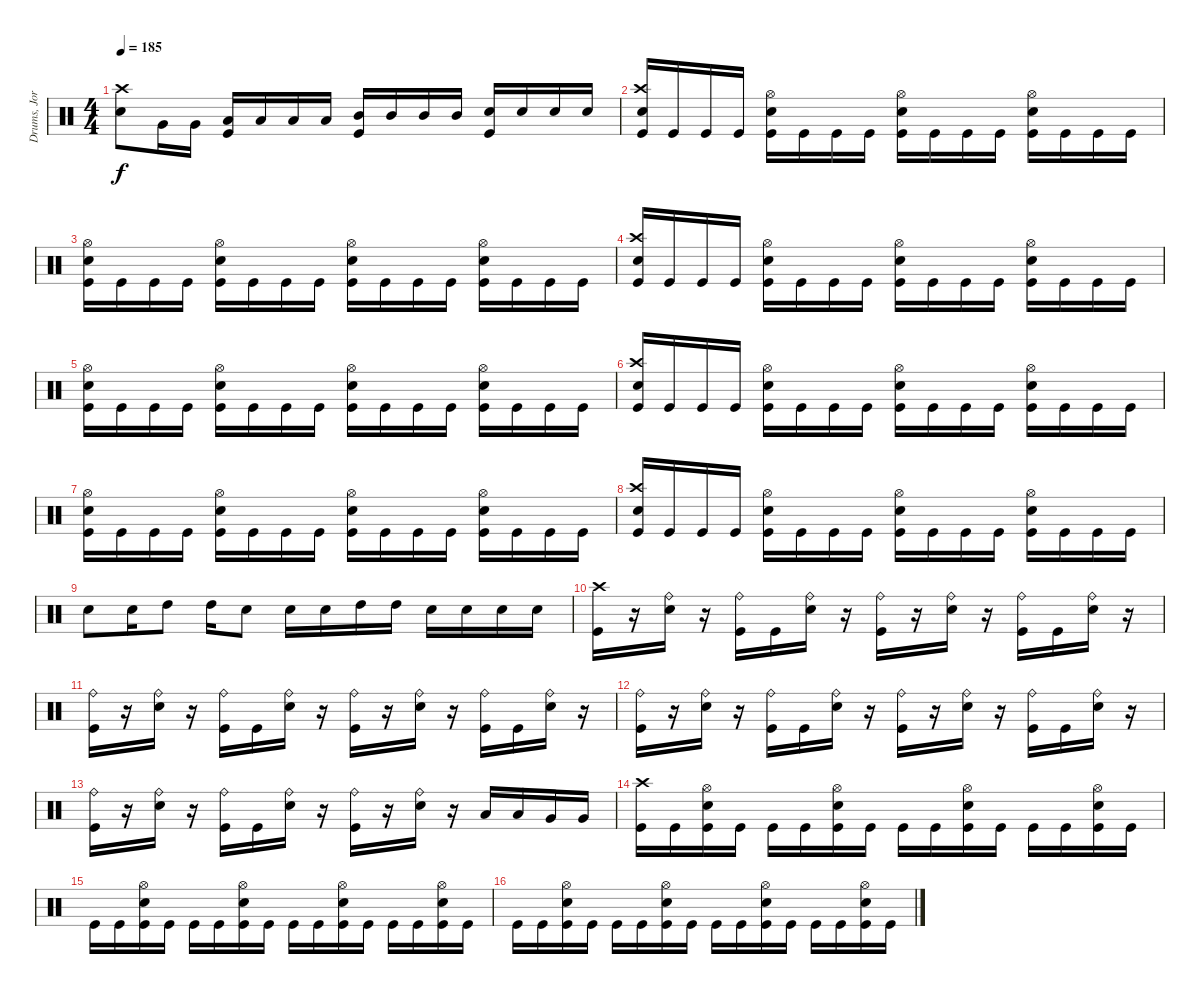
\track ("Drums, Jorye Sáez" "Drums, Jor") {instrument percussion}
\staff {score}
\articulation defaults
\ts (4 4)
\tempo 185
\clef neutral
\ks c
("Electric Snare (hit)" "Crash high (hit)").8{dy f} "Very Low Tom (hit)".16 "Very Low Tom (hit)".16 ("Low Tom (hit)" "Kick (hit)").16 "Low Tom (hit)".16 "Low Tom (hit)".16 "Low Tom (hit)".16 ("Mid Tom (hit)" "Kick (hit)").16 "Mid Tom (hit)".16 "Mid Tom (hit)".16 "Mid Tom (hit)".16 ("Electric Snare (hit)" "Kick (hit)").16 "Electric Snare (hit)".16 "Electric Snare (hit)".16 "Electric Snare (hit)".16 |
("Kick (hit)" "Electric Snare (hit)" "Crash high (hit)").16 "Kick (hit)".16 "Kick (hit)".16 "Kick (hit)".16 ("Kick (hit)" "Electric Snare (hit)" "Hi-Hat (open)").16 "Kick (hit)".16 "Kick (hit)".16 "Kick (hit)".16 ("Kick (hit)" "Electric Snare (hit)" "Hi-Hat (open)").16 "Kick (hit)".16 "Kick (hit)".16 "Kick (hit)".16 ("Kick (hit)" "Electric Snare (hit)" "Hi-Hat (open)").16 "Kick (hit)".16 "Kick (hit)".16 "Kick (hit)".16 |
("Kick (hit)" "Electric Snare (hit)" "Hi-Hat (open)").16 "Kick (hit)".16 "Kick (hit)".16 "Kick (hit)".16 ("Kick (hit)" "Electric Snare (hit)" "Hi-Hat (open)").16 "Kick (hit)".16 "Kick (hit)".16 "Kick (hit)".16 ("Kick (hit)" "Electric Snare (hit)" "Hi-Hat (open)").16 "Kick (hit)".16 "Kick (hit)".16 "Kick (hit)".16 ("Kick (hit)" "Electric Snare (hit)" "Hi-Hat (open)").16 "Kick (hit)".16 "Kick (hit)".16 "Kick (hit)".16 |
("Kick (hit)" "Electric Snare (hit)" "Crash high (hit)").16 "Kick (hit)".16 "Kick (hit)".16 "Kick (hit)".16 ("Kick (hit)" "Electric Snare (hit)" "Hi-Hat (open)").16 "Kick (hit)".16 "Kick (hit)".16 "Kick (hit)".16 ("Kick (hit)" "Electric Snare (hit)" "Hi-Hat (open)").16 "Kick (hit)".16 "Kick (hit)".16 "Kick (hit)".16 ("Kick (hit)" "Electric Snare (hit)" "Hi-Hat (open)").16 "Kick (hit)".16 "Kick (hit)".16 "Kick (hit)".16 |
("Kick (hit)" "Electric Snare (hit)" "Hi-Hat (open)").16 "Kick (hit)".16 "Kick (hit)".16 "Kick (hit)".16 ("Kick (hit)" "Electric Snare (hit)" "Hi-Hat (open)").16 "Kick (hit)".16 "Kick (hit)".16 "Kick (hit)".16 ("Kick (hit)" "Electric Snare (hit)" "Hi-Hat (open)").16 "Kick (hit)".16 "Kick (hit)".16 "Kick (hit)".16 ("Kick (hit)" "Electric Snare (hit)" "Hi-Hat (open)").16 "Kick (hit)".16 "Kick (hit)".16 "Kick (hit)".16 |
("Kick (hit)" "Electric Snare (hit)" "Crash high (hit)").16 "Kick (hit)".16 "Kick (hit)".16 "Kick (hit)".16 ("Kick (hit)" "Electric Snare (hit)" "Hi-Hat (open)").16 "Kick (hit)".16 "Kick (hit)".16 "Kick (hit)".16 ("Kick (hit)" "Electric Snare (hit)" "Hi-Hat (open)").16 "Kick (hit)".16 "Kick (hit)".16 "Kick (hit)".16 ("Kick (hit)" "Electric Snare (hit)" "Hi-Hat (open)").16 "Kick (hit)".16 "Kick (hit)".16 "Kick (hit)".16 |
("Kick (hit)" "Electric Snare (hit)" "Hi-Hat (open)").16 "Kick (hit)".16 "Kick (hit)".16 "Kick (hit)".16 ("Kick (hit)" "Electric Snare (hit)" "Hi-Hat (open)").16 "Kick (hit)".16 "Kick (hit)".16 "Kick (hit)".16 ("Kick (hit)" "Electric Snare (hit)" "Hi-Hat (open)").16 "Kick (hit)".16 "Kick (hit)".16 "Kick (hit)".16 ("Kick (hit)" "Electric Snare (hit)" "Hi-Hat (open)").16 "Kick (hit)".16 "Kick (hit)".16 "Kick (hit)".16 |
("Kick (hit)" "Electric Snare (hit)" "Crash high (hit)").16 "Kick (hit)".16 "Kick (hit)".16 "Kick (hit)".16 ("Kick (hit)" "Electric Snare (hit)" "Hi-Hat (open)").16 "Kick (hit)".16 "Kick (hit)".16 "Kick (hit)".16 ("Kick (hit)" "Electric Snare (hit)" "Hi-Hat (open)").16 "Kick (hit)".16 "Kick (hit)".16 "Kick (hit)".16 ("Kick (hit)" "Electric Snare (hit)" "Hi-Hat (open)").16 "Kick (hit)".16 "Kick (hit)".16 "Kick (hit)".16 |
"Electric Snare (hit)".8 "Electric Snare (hit)".16 "High Tom (hit)".8 "High Tom (hit)".16 "Electric Snare (hit)".8 "Electric Snare (hit)".16 "Electric Snare (hit)".16 "High Tom (hit)".16 "High Tom (hit)".16 "Electric Snare (hit)".16 "Electric Snare (hit)".16 "Electric Snare (hit)".16 "Electric Snare (hit)".16 |
("Kick (hit)" "Crash high (hit)").16 r.16 ("Electric Snare (hit)" "Ride (bell)").16 r.16 ("Kick (hit)" "Ride (bell)").16 "Kick (hit)".16 ("Electric Snare (hit)" "Ride (bell)").16 r.16 ("Kick (hit)" "Ride (bell)").16 r.16 ("Electric Snare (hit)" "Ride (bell)").16 r.16 ("Kick (hit)" "Ride (bell)").16 "Kick (hit)".16 ("Electric Snare (hit)" "Ride (bell)").16 r.16 |
("Kick (hit)" "Ride (bell)").16 r.16 ("Electric Snare (hit)" "Ride (bell)").16 r.16 ("Kick (hit)" "Ride (bell)").16 "Kick (hit)".16 ("Electric Snare (hit)" "Ride (bell)").16 r.16 ("Kick (hit)" "Ride (bell)").16 r.16 ("Electric Snare (hit)" "Ride (bell)").16 r.16 ("Kick (hit)" "Ride (bell)").16 "Kick (hit)".16 ("Electric Snare (hit)" "Ride (bell)").16 r.16 |
("Kick (hit)" "Ride (bell)").16 r.16 ("Electric Snare (hit)" "Ride (bell)").16 r.16 ("Kick (hit)" "Ride (bell)").16 "Kick (hit)".16 ("Electric Snare (hit)" "Ride (bell)").16 r.16 ("Kick (hit)" "Ride (bell)").16 r.16 ("Electric Snare (hit)" "Ride (bell)").16 r.16 ("Kick (hit)" "Ride (bell)").16 "Kick (hit)".16 ("Electric Snare (hit)" "Ride (bell)").16 r.16 |
("Kick (hit)" "Ride (bell)").16 r.16 ("Electric Snare (hit)" "Ride (bell)").16 r.16 ("Kick (hit)" "Ride (bell)").16 "Kick (hit)".16 ("Electric Snare (hit)" "Ride (bell)").16 r.16 ("Kick (hit)" "Ride (bell)").16 r.16 ("Electric Snare (hit)" "Ride (bell)").16 r.16 "Low Tom (hit)".16 "Low Tom (hit)".16 "Very Low Tom (hit)".16 "Very Low Tom (hit)".16 |
("Kick (hit)" "Crash high (hit)").16 "Kick (hit)".16 ("Kick (hit)" "Electric Snare (hit)" "Hi-Hat (open)").16 "Kick (hit)".16 "Kick (hit)".16 "Kick (hit)".16 ("Kick (hit)" "Electric Snare (hit)" "Hi-Hat (open)").16 "Kick (hit)".16 "Kick (hit)".16 "Kick (hit)".16 ("Kick (hit)" "Electric Snare (hit)" "Hi-Hat (open)").16 "Kick (hit)".16 "Kick (hit)".16 "Kick (hit)".16 ("Kick (hit)" "Electric Snare (hit)" "Hi-Hat (open)").16 "Kick (hit)".16 |
"Kick (hit)".16 "Kick (hit)".16 ("Kick (hit)" "Electric Snare (hit)" "Hi-Hat (open)").16 "Kick (hit)".16 "Kick (hit)".16 "Kick (hit)".16 ("Kick (hit)" "Electric Snare (hit)" "Hi-Hat (open)").16 "Kick (hit)".16 "Kick (hit)".16 "Kick (hit)".16 ("Kick (hit)" "Electric Snare (hit)" "Hi-Hat (open)").16 "Kick (hit)".16 "Kick (hit)".16 "Kick (hit)".16 ("Kick (hit)" "Electric Snare (hit)" "Hi-Hat (open)").16 "Kick (hit)".16 |
"Kick (hit)".16 "Kick (hit)".16 ("Kick (hit)" "Electric Snare (hit)" "Hi-Hat (open)").16 "Kick (hit)".16 "Kick (hit)".16 "Kick (hit)".16 ("Kick (hit)" "Electric Snare (hit)" "Hi-Hat (open)").16 "Kick (hit)".16 "Kick (hit)".16 "Kick (hit)".16 ("Kick (hit)" "Electric Snare (hit)" "Hi-Hat (open)").16 "Kick (hit)".16 "Kick (hit)".16 "Kick (hit)".16 ("Kick (hit)" "Electric Snare (hit)" "Hi-Hat (open)").16 "Kick (hit)".16
